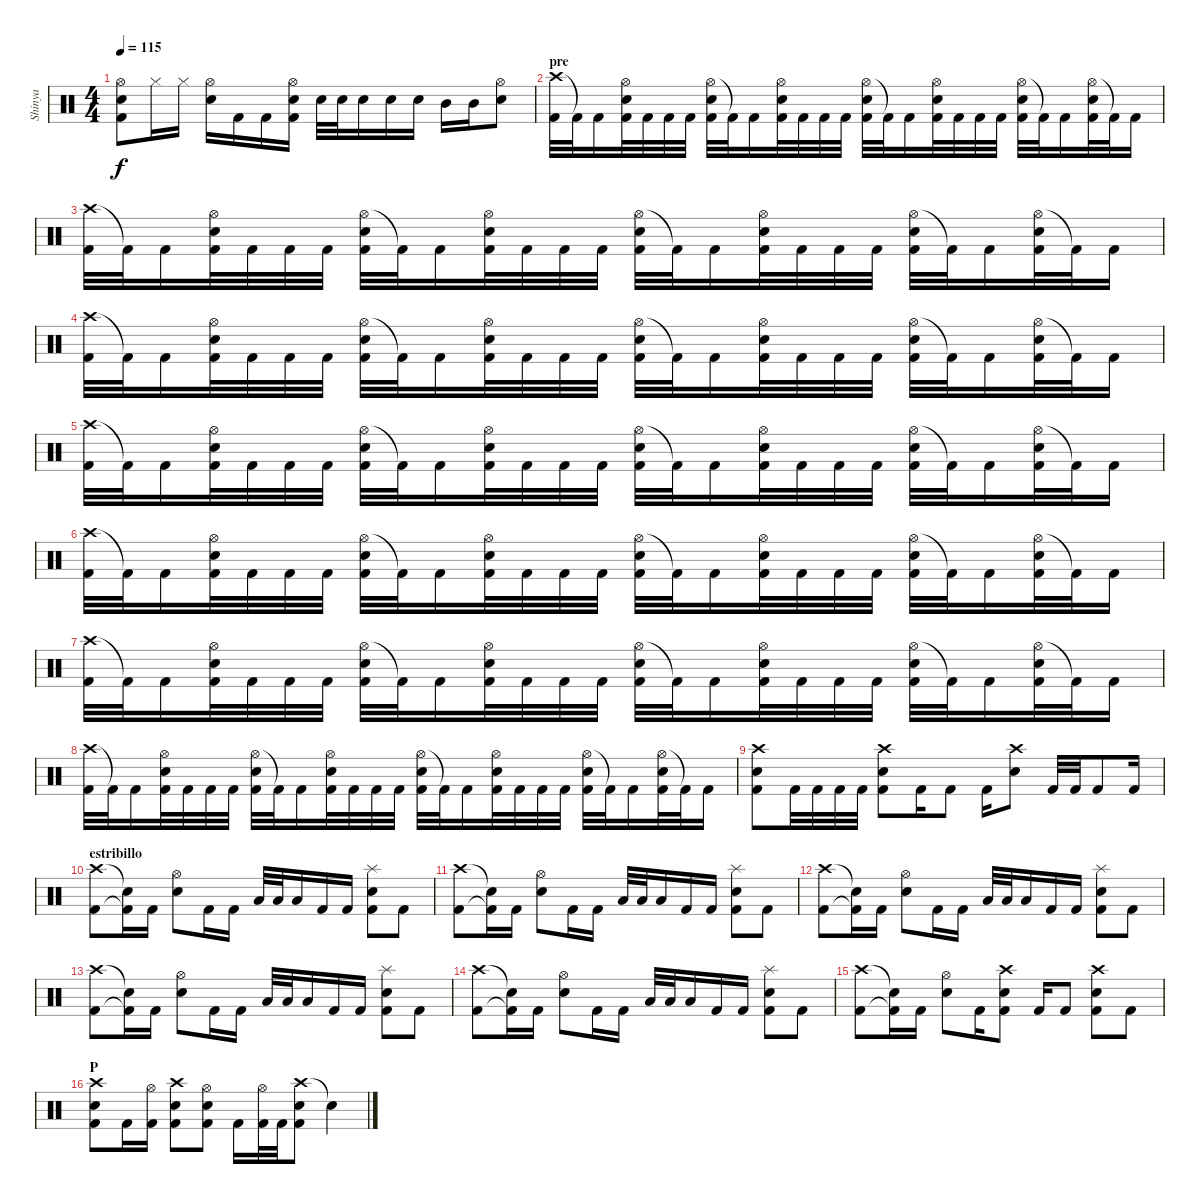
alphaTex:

\track ("Shinya" "Shinya") {instrument percussion}
\staff {score}
\articulation defaults
\ts (4 4)
\tempo 115
\clef neutral
\ks c
("Hi-Hat (open)" "Electric Snare (hit)" "Kick (hit) 2").8{dy f} "Hi-Hat (closed)".16 "Hi-Hat (closed)".16 ("Hi-Hat (open)" "Electric Snare (hit)").16 "Kick (hit) 2".16 "Kick (hit) 2".16 ("Hi-Hat (open)" "Electric Snare (hit)" "Kick (hit) 2").16 "Electric Snare (hit)".32 "Electric Snare (hit)".32 "Electric Snare (hit)".16 "Electric Snare (hit)".16 "Electric Snare (hit)".16 "Mid Tom (hit)".16 "Mid Tom (hit)".16 ("Electric Snare (hit)" "Hi-Hat (open)").8 |
\section ("" "pre")
("Crash high (hit)" "Kick (hit) 2").32 "Kick (hit) 2"{t}.32 "Kick (hit) 2".16 ("Hi-Hat (open)" "Electric Snare (hit)" "Kick (hit) 2").32 "Kick (hit) 2".32 "Kick (hit) 2".32 "Kick (hit) 2".32 ("Hi-Hat (open)" "Electric Snare (hit)" "Kick (hit) 2").32 "Kick (hit) 2"{t}.32 "Kick (hit) 2".16 ("Hi-Hat (open)" "Electric Snare (hit)" "Kick (hit) 2").32 "Kick (hit) 2".32 "Kick (hit) 2".32 "Kick (hit) 2".32 ("Hi-Hat (open)" "Electric Snare (hit)" "Kick (hit) 2").32 "Kick (hit) 2"{t}.32 "Kick (hit) 2".16 ("Hi-Hat (open)" "Electric Snare (hit)" "Kick (hit) 2").32 "Kick (hit) 2".32 "Kick (hit) 2".32 "Kick (hit) 2".32 ("Hi-Hat (open)" "Electric Snare (hit)" "Kick (hit) 2").32 "Kick (hit) 2"{t}.32 "Kick (hit) 2".16 ("Hi-Hat (open)" "Electric Snare (hit)" "Kick (hit) 2").32 "Kick (hit) 2"{t}.32 "Kick (hit) 2".16 |
("Crash high (hit)" "Kick (hit) 2").32 "Kick (hit) 2"{t}.32 "Kick (hit) 2".16 ("Hi-Hat (open)" "Electric Snare (hit)" "Kick (hit) 2").32 "Kick (hit) 2".32 "Kick (hit) 2".32 "Kick (hit) 2".32 ("Hi-Hat (open)" "Electric Snare (hit)" "Kick (hit) 2").32 "Kick (hit) 2"{t}.32 "Kick (hit) 2".16 ("Hi-Hat (open)" "Electric Snare (hit)" "Kick (hit) 2").32 "Kick (hit) 2".32 "Kick (hit) 2".32 "Kick (hit) 2".32 ("Hi-Hat (open)" "Electric Snare (hit)" "Kick (hit) 2").32 "Kick (hit) 2"{t}.32 "Kick (hit) 2".16 ("Hi-Hat (open)" "Electric Snare (hit)" "Kick (hit) 2").32 "Kick (hit) 2".32 "Kick (hit) 2".32 "Kick (hit) 2".32 ("Hi-Hat (open)" "Electric Snare (hit)" "Kick (hit) 2").32 "Kick (hit) 2"{t}.32 "Kick (hit) 2".16 ("Hi-Hat (open)" "Electric Snare (hit)" "Kick (hit) 2").32 "Kick (hit) 2"{t}.32 "Kick (hit) 2".16 |
("Crash high (hit)" "Kick (hit) 2").32 "Kick (hit) 2"{t}.32 "Kick (hit) 2".16 ("Hi-Hat (open)" "Electric Snare (hit)" "Kick (hit) 2").32 "Kick (hit) 2".32 "Kick (hit) 2".32 "Kick (hit) 2".32 ("Hi-Hat (open)" "Electric Snare (hit)" "Kick (hit) 2").32 "Kick (hit) 2"{t}.32 "Kick (hit) 2".16 ("Hi-Hat (open)" "Electric Snare (hit)" "Kick (hit) 2").32 "Kick (hit) 2".32 "Kick (hit) 2".32 "Kick (hit) 2".32 ("Hi-Hat (open)" "Electric Snare (hit)" "Kick (hit) 2").32 "Kick (hit) 2"{t}.32 "Kick (hit) 2".16 ("Hi-Hat (open)" "Electric Snare (hit)" "Kick (hit) 2").32 "Kick (hit) 2".32 "Kick (hit) 2".32 "Kick (hit) 2".32 ("Hi-Hat (open)" "Electric Snare (hit)" "Kick (hit) 2").32 "Kick (hit) 2"{t}.32 "Kick (hit) 2".16 ("Hi-Hat (open)" "Electric Snare (hit)" "Kick (hit) 2").32 "Kick (hit) 2"{t}.32 "Kick (hit) 2".16 |
("Crash high (hit)" "Kick (hit) 2").32 "Kick (hit) 2"{t}.32 "Kick (hit) 2".16 ("Hi-Hat (open)" "Electric Snare (hit)" "Kick (hit) 2").32 "Kick (hit) 2".32 "Kick (hit) 2".32 "Kick (hit) 2".32 ("Hi-Hat (open)" "Electric Snare (hit)" "Kick (hit) 2").32 "Kick (hit) 2"{t}.32 "Kick (hit) 2".16 ("Hi-Hat (open)" "Electric Snare (hit)" "Kick (hit) 2").32 "Kick (hit) 2".32 "Kick (hit) 2".32 "Kick (hit) 2".32 ("Hi-Hat (open)" "Electric Snare (hit)" "Kick (hit) 2").32 "Kick (hit) 2"{t}.32 "Kick (hit) 2".16 ("Hi-Hat (open)" "Electric Snare (hit)" "Kick (hit) 2").32 "Kick (hit) 2".32 "Kick (hit) 2".32 "Kick (hit) 2".32 ("Hi-Hat (open)" "Electric Snare (hit)" "Kick (hit) 2").32 "Kick (hit) 2"{t}.32 "Kick (hit) 2".16 ("Hi-Hat (open)" "Electric Snare (hit)" "Kick (hit) 2").32 "Kick (hit) 2"{t}.32 "Kick (hit) 2".16 |
("Crash high (hit)" "Kick (hit) 2").32 "Kick (hit) 2"{t}.32 "Kick (hit) 2".16 ("Hi-Hat (open)" "Electric Snare (hit)" "Kick (hit) 2").32 "Kick (hit) 2".32 "Kick (hit) 2".32 "Kick (hit) 2".32 ("Hi-Hat (open)" "Electric Snare (hit)" "Kick (hit) 2").32 "Kick (hit) 2"{t}.32 "Kick (hit) 2".16 ("Hi-Hat (open)" "Electric Snare (hit)" "Kick (hit) 2").32 "Kick (hit) 2".32 "Kick (hit) 2".32 "Kick (hit) 2".32 ("Hi-Hat (open)" "Electric Snare (hit)" "Kick (hit) 2").32 "Kick (hit) 2"{t}.32 "Kick (hit) 2".16 ("Hi-Hat (open)" "Electric Snare (hit)" "Kick (hit) 2").32 "Kick (hit) 2".32 "Kick (hit) 2".32 "Kick (hit) 2".32 ("Hi-Hat (open)" "Electric Snare (hit)" "Kick (hit) 2").32 "Kick (hit) 2"{t}.32 "Kick (hit) 2".16 ("Hi-Hat (open)" "Electric Snare (hit)" "Kick (hit) 2").32 "Kick (hit) 2"{t}.32 "Kick (hit) 2".16 |
("Crash high (hit)" "Kick (hit) 2").32 "Kick (hit) 2"{t}.32 "Kick (hit) 2".16 ("Hi-Hat (open)" "Electric Snare (hit)" "Kick (hit) 2").32 "Kick (hit) 2".32 "Kick (hit) 2".32 "Kick (hit) 2".32 ("Hi-Hat (open)" "Electric Snare (hit)" "Kick (hit) 2").32 "Kick (hit) 2"{t}.32 "Kick (hit) 2".16 ("Hi-Hat (open)" "Electric Snare (hit)" "Kick (hit) 2").32 "Kick (hit) 2".32 "Kick (hit) 2".32 "Kick (hit) 2".32 ("Hi-Hat (open)" "Electric Snare (hit)" "Kick (hit) 2").32 "Kick (hit) 2"{t}.32 "Kick (hit) 2".16 ("Hi-Hat (open)" "Electric Snare (hit)" "Kick (hit) 2").32 "Kick (hit) 2".32 "Kick (hit) 2".32 "Kick (hit) 2".32 ("Hi-Hat (open)" "Electric Snare (hit)" "Kick (hit) 2").32 "Kick (hit) 2"{t}.32 "Kick (hit) 2".16 ("Hi-Hat (open)" "Electric Snare (hit)" "Kick (hit) 2").32 "Kick (hit) 2"{t}.32 "Kick (hit) 2".16 |
("Crash high (hit)" "Kick (hit) 2").32 "Kick (hit) 2"{t}.32 "Kick (hit) 2".16 ("Hi-Hat (open)" "Electric Snare (hit)" "Kick (hit) 2").32 "Kick (hit) 2".32 "Kick (hit) 2".32 "Kick (hit) 2".32 ("Hi-Hat (open)" "Electric Snare (hit)" "Kick (hit) 2").32 "Kick (hit) 2"{t}.32 "Kick (hit) 2".16 ("Hi-Hat (open)" "Electric Snare (hit)" "Kick (hit) 2").32 "Kick (hit) 2".32 "Kick (hit) 2".32 "Kick (hit) 2".32 ("Hi-Hat (open)" "Electric Snare (hit)" "Kick (hit) 2").32 "Kick (hit) 2"{t}.32 "Kick (hit) 2".16 ("Hi-Hat (open)" "Electric Snare (hit)" "Kick (hit) 2").32 "Kick (hit) 2".32 "Kick (hit) 2".32 "Kick (hit) 2".32 ("Hi-Hat (open)" "Electric Snare (hit)" "Kick (hit) 2").32 "Kick (hit) 2"{t}.32 "Kick (hit) 2".16 ("Hi-Hat (open)" "Electric Snare (hit)" "Kick (hit) 2").32 "Kick (hit) 2"{t}.32 "Kick (hit) 2".16 |
("Crash high (hit)" "Electric Snare (hit)" "Kick (hit) 2").8 "Kick (hit) 2".32 "Kick (hit) 2".32 "Kick (hit) 2".32 "Kick (hit) 2".32 ("Crash high (hit)" "Electric Snare (hit)" "Kick (hit) 2").8 "Kick (hit) 2".16 "Kick (hit) 2".8 "Kick (hit) 2".16 ("Crash high (hit)" "Electric Snare (hit)").8 "Kick (hit) 2".32 "Kick (hit) 2".32 "Kick (hit) 2".8 "Kick (hit) 2".16 |
\section ("" "estribillo")
("Crash high (hit)" "Kick (hit) 2").8 ("Snare (hit)"{t} "Kick (hit) 2"{t}).16 "Kick (hit) 2".16 ("Hi-Hat (open)" "Electric Snare (hit)").8 "Kick (hit) 2".16 "Kick (hit) 2".16 "Low Floor Tom (hit)".32 "Low Floor Tom (hit)".32 "Low Floor Tom (hit)".16 "Kick (hit) 2".16 "Kick (hit) 2".16 ("Splash (hit)" "Electric Snare (hit)" "Kick (hit) 2").8 "Kick (hit) 2".8 |
("Crash high (hit)" "Kick (hit) 2").8 ("Snare (hit)"{t} "Kick (hit) 2"{t}).16 "Kick (hit) 2".16 ("Hi-Hat (open)" "Electric Snare (hit)").8 "Kick (hit) 2".16 "Kick (hit) 2".16 "Low Floor Tom (hit)".32 "Low Floor Tom (hit)".32 "Low Floor Tom (hit)".16 "Kick (hit) 2".16 "Kick (hit) 2".16 ("Splash (hit)" "Electric Snare (hit)" "Kick (hit) 2").8 "Kick (hit) 2".8 |
("Crash high (hit)" "Kick (hit) 2").8 ("Snare (hit)"{t} "Kick (hit) 2"{t}).16 "Kick (hit) 2".16 ("Hi-Hat (open)" "Electric Snare (hit)").8 "Kick (hit) 2".16 "Kick (hit) 2".16 "Low Floor Tom (hit)".32 "Low Floor Tom (hit)".32 "Low Floor Tom (hit)".16 "Kick (hit) 2".16 "Kick (hit) 2".16 ("Splash (hit)" "Electric Snare (hit)" "Kick (hit) 2").8 "Kick (hit) 2".8 |
("Crash high (hit)" "Kick (hit) 2").8 ("Snare (hit)"{t} "Kick (hit) 2"{t}).16 "Kick (hit) 2".16 ("Hi-Hat (open)" "Electric Snare (hit)").8 "Kick (hit) 2".16 "Kick (hit) 2".16 "Low Floor Tom (hit)".32 "Low Floor Tom (hit)".32 "Low Floor Tom (hit)".16 "Kick (hit) 2".16 "Kick (hit) 2".16 ("Splash (hit)" "Electric Snare (hit)" "Kick (hit) 2").8 "Kick (hit) 2".8 |
("Crash high (hit)" "Kick (hit) 2").8 ("Snare (hit)"{t} "Kick (hit) 2"{t}).16 "Kick (hit) 2".16 ("Hi-Hat (open)" "Electric Snare (hit)").8 "Kick (hit) 2".16 "Kick (hit) 2".16 "Low Floor Tom (hit)".32 "Low Floor Tom (hit)".32 "Low Floor Tom (hit)".16 "Kick (hit) 2".16 "Kick (hit) 2".16 ("Splash (hit)" "Electric Snare (hit)" "Kick (hit) 2").8 "Kick (hit) 2".8 |
("Crash high (hit)" "Kick (hit) 2").8 ("Snare (hit)"{t} "Kick (hit) 2"{t}).16 "Kick (hit) 2".16 ("Hi-Hat (open)" "Electric Snare (hit)").8 "Kick (hit) 2".16 ("Crash high (hit)" "Electric Snare (hit)" "Kick (hit) 2").8 "Kick (hit) 2".16 "Kick (hit) 2".8 ("Crash high (hit)" "Electric Snare (hit)" "Kick (hit) 2").8 "Kick (hit) 2".8 |
\section ("" "P")
("Crash high (hit)" "Electric Snare (hit)" "Kick (hit) 2").8 "Kick (hit) 2".16 ("Hi-Hat (open)" "Kick (hit) 2").16 ("Crash high (hit)" "Electric Snare (hit)" "Kick (hit) 2").8 ("Hi-Hat (open)" "Electric Snare (hit)" "Kick (hit) 2").8 "Kick (hit) 2".16 ("Hi-Hat (open)" "Kick (hit) 2").32 "Kick (hit) 2".32 ("Crash high (hit)" "Electric Snare (hit)" "Kick (hit) 2").8 "Snare (hit)"{t}.4
